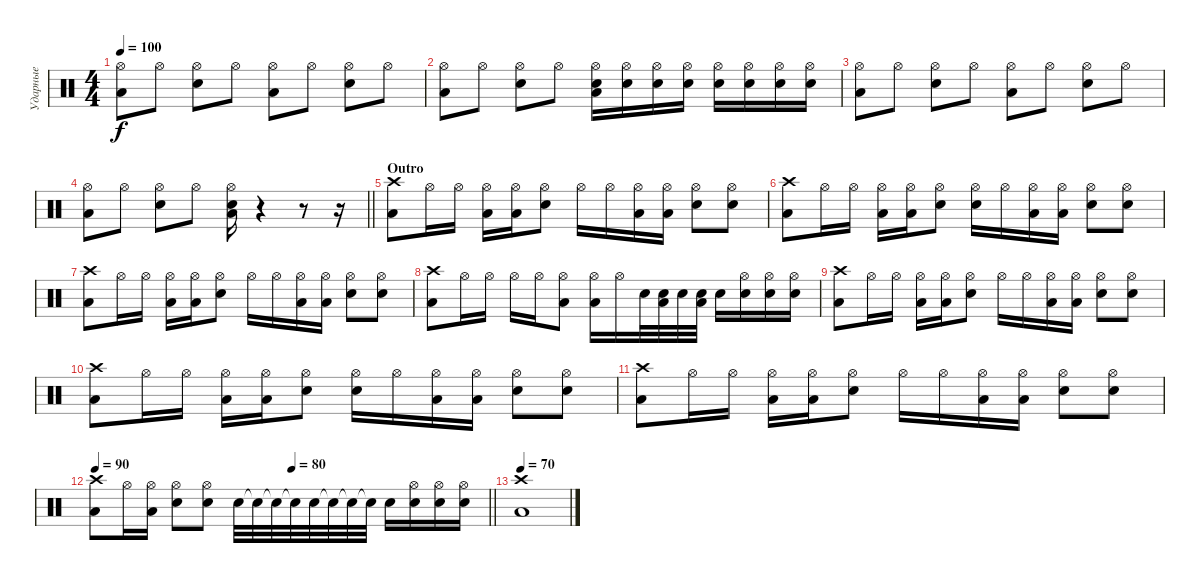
\track ("Ударные" "Ударные") {instrument percussion}
\staff {score}
\articulation defaults
\ts (4 4)
\tempo 100
\clef neutral
\ks c
("Low Floor Tom (hit)" "Hi-Hat (open)").8{dy f} "Hi-Hat (open)".8 ("Snare (hit) 2" "Hi-Hat (open)").8 "Hi-Hat (open)".8 ("Low Floor Tom (hit)" "Hi-Hat (open)").8 "Hi-Hat (open)".8 ("Snare (hit) 2" "Hi-Hat (open)").8 "Hi-Hat (open)".8 |
("Low Floor Tom (hit)" "Hi-Hat (open)").8 "Hi-Hat (open)".8 ("Snare (hit) 2" "Hi-Hat (open)").8 "Hi-Hat (open)".8 ("Low Floor Tom (hit)" "Snare (hit) 2" "Hi-Hat (open)").16 ("Snare (hit) 2" "Hi-Hat (open)").16 ("Snare (hit) 2" "Hi-Hat (open)").16 ("Snare (hit) 2" "Hi-Hat (open)").16 ("Snare (hit) 2" "Hi-Hat (open)").16 ("Snare (hit) 2" "Hi-Hat (open)").16 ("Snare (hit) 2" "Hi-Hat (open)").16 ("Snare (hit) 2" "Hi-Hat (open)").16 |
("Low Floor Tom (hit)" "Hi-Hat (open)").8 "Hi-Hat (open)".8 ("Snare (hit) 2" "Hi-Hat (open)").8 "Hi-Hat (open)".8 ("Low Floor Tom (hit)" "Hi-Hat (open)").8 "Hi-Hat (open)".8 ("Snare (hit) 2" "Hi-Hat (open)").8 "Hi-Hat (open)".8 |
\barLineRight lightlight
("Low Floor Tom (hit)" "Hi-Hat (open)").8 "Hi-Hat (open)".8 ("Snare (hit) 2" "Hi-Hat (open)").8 "Hi-Hat (open)".8 ("Low Floor Tom (hit)" "Snare (hit) 2" "Hi-Hat (open)").16 r.4 r.8 r.16 |
\section ("" "Outro")
("Low Floor Tom (hit)" "Crash high (hit)").8 "Hi-Hat (open)".16 "Hi-Hat (open)".16 ("Low Floor Tom (hit)" "Hi-Hat (open)").16 ("Low Floor Tom (hit)" "Hi-Hat (open)").16 ("Snare (hit) 2" "Hi-Hat (open)").8 "Hi-Hat (open)".16 "Hi-Hat (open)".16 ("Low Floor Tom (hit)" "Hi-Hat (open)").16 ("Low Floor Tom (hit)" "Hi-Hat (open)").16 ("Snare (hit) 2" "Hi-Hat (open)").8 ("Snare (hit) 2" "Hi-Hat (open)").8 |
("Low Floor Tom (hit)" "Crash high (hit)").8 "Hi-Hat (open)".16 "Hi-Hat (open)".16 ("Low Floor Tom (hit)" "Hi-Hat (open)").16 ("Low Floor Tom (hit)" "Hi-Hat (open)").16 ("Snare (hit) 2" "Hi-Hat (open)").8 ("Snare (hit) 2" "Hi-Hat (open)").16 "Hi-Hat (open)".16 ("Low Floor Tom (hit)" "Hi-Hat (open)").16 ("Low Floor Tom (hit)" "Hi-Hat (open)").16 ("Snare (hit) 2" "Hi-Hat (open)").8 ("Snare (hit) 2" "Hi-Hat (open)").8 |
("Low Floor Tom (hit)" "Crash high (hit)").8 "Hi-Hat (open)".16 "Hi-Hat (open)".16 ("Low Floor Tom (hit)" "Hi-Hat (open)").16 ("Low Floor Tom (hit)" "Hi-Hat (open)").16 ("Snare (hit) 2" "Hi-Hat (open)").8 "Hi-Hat (open)".16 "Hi-Hat (open)".16 ("Low Floor Tom (hit)" "Hi-Hat (open)").16 ("Low Floor Tom (hit)" "Hi-Hat (open)").16 ("Snare (hit) 2" "Hi-Hat (open)").8 ("Snare (hit) 2" "Hi-Hat (open)").8 |
("Low Floor Tom (hit)" "Crash high (hit)").8 "Hi-Hat (open)".16 "Hi-Hat (open)".16 "Hi-Hat (open)".16 "Hi-Hat (open)".16 ("Low Floor Tom (hit)" "Hi-Hat (open)").8 ("Low Floor Tom (hit)" "Hi-Hat (open)").16 "Hi-Hat (open)".16 "Snare (hit) 2".32 ("Low Floor Tom (hit)" "Snare (hit) 2").32 "Snare (hit) 2".32 ("Low Floor Tom (hit)" "Snare (hit) 2").32 "Snare (hit) 2".16 ("Snare (hit) 2" "Hi-Hat (open)").16 ("Snare (hit) 2" "Hi-Hat (open)").16 ("Snare (hit) 2" "Hi-Hat (open)").16 |
("Low Floor Tom (hit)" "Crash high (hit)").8 "Hi-Hat (open)".16 "Hi-Hat (open)".16 ("Low Floor Tom (hit)" "Hi-Hat (open)").16 ("Low Floor Tom (hit)" "Hi-Hat (open)").16 ("Snare (hit) 2" "Hi-Hat (open)").8 "Hi-Hat (open)".16 "Hi-Hat (open)".16 ("Low Floor Tom (hit)" "Hi-Hat (open)").16 ("Low Floor Tom (hit)" "Hi-Hat (open)").16 ("Snare (hit) 2" "Hi-Hat (open)").8 ("Snare (hit) 2" "Hi-Hat (open)").8 |
("Low Floor Tom (hit)" "Crash high (hit)").8 "Hi-Hat (open)".16 "Hi-Hat (open)".16 ("Low Floor Tom (hit)" "Hi-Hat (open)").16 ("Low Floor Tom (hit)" "Hi-Hat (open)").16 ("Snare (hit) 2" "Hi-Hat (open)").8 ("Snare (hit) 2" "Hi-Hat (open)").16 "Hi-Hat (open)".16 ("Low Floor Tom (hit)" "Hi-Hat (open)").16 ("Low Floor Tom (hit)" "Hi-Hat (open)").16 ("Snare (hit) 2" "Hi-Hat (open)").8 ("Snare (hit) 2" "Hi-Hat (open)").8 |
("Low Floor Tom (hit)" "Crash high (hit)").8 "Hi-Hat (open)".16 "Hi-Hat (open)".16 ("Low Floor Tom (hit)" "Hi-Hat (open)").16 ("Low Floor Tom (hit)" "Hi-Hat (open)").16 ("Snare (hit) 2" "Hi-Hat (open)").8 "Hi-Hat (open)".16 "Hi-Hat (open)".16 ("Low Floor Tom (hit)" "Hi-Hat (open)").16 ("Low Floor Tom (hit)" "Hi-Hat (open)").16 ("Snare (hit) 2" "Hi-Hat (open)").8 ("Snare (hit) 2" "Hi-Hat (open)").8 |
\tempo 90
\tempo (80 0.5)
\barLineRight lightlight
("Low Floor Tom (hit)" "Crash high (hit)").8 "Hi-Hat (open)".16 ("Low Floor Tom (hit)" "Hi-Hat (open)").16 ("Snare (hit) 2" "Hi-Hat (open)").8 ("Snare (hit) 2" "Hi-Hat (open)").8 "Snare (hit) 2".32 "Snare (hit) 2"{t}.32 "Snare (hit) 2"{t}.32 "Snare (hit) 2"{t}.32 "Snare (hit) 2".32 "Snare (hit) 2"{t}.32 "Snare (hit) 2"{t}.32 "Snare (hit) 2"{t}.32 "Snare (hit) 2".16 ("Snare (hit) 2" "Hi-Hat (open)").16 ("Snare (hit) 2" "Hi-Hat (open)").16 ("Snare (hit) 2" "Hi-Hat (open)").16 |
\tempo 70
("Low Floor Tom (hit)" "Crash high (hit)").1
